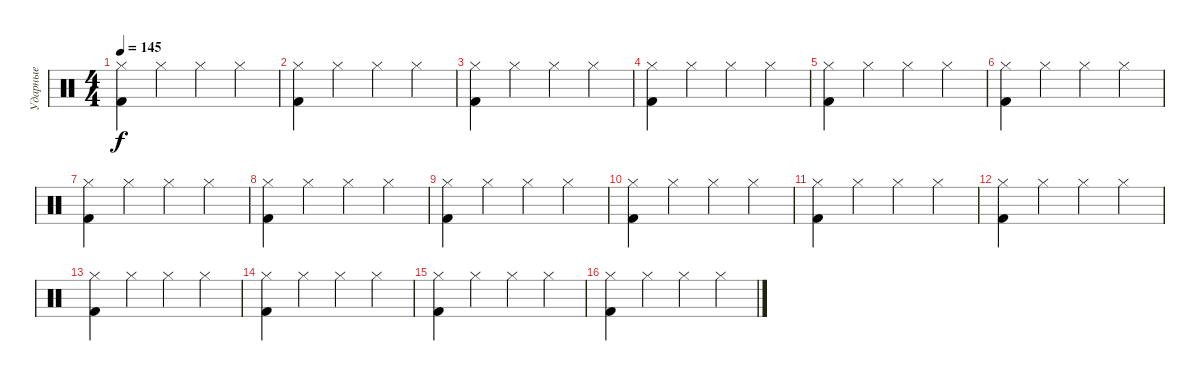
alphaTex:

\track ("Ударные" "Ударные") {instrument percussion}
\staff {score}
\articulation defaults
\ts (4 4)
\tempo 145
\clef neutral
\ks c
("Hi-Hat (closed)" "Kick (hit) 2").4{dy f} "Hi-Hat (closed)".4 "Hi-Hat (closed)".4 "Hi-Hat (closed)".4 |
("Kick (hit) 2" "Hi-Hat (closed)").4 "Hi-Hat (closed)".4 "Hi-Hat (closed)".4 "Hi-Hat (closed)".4 |
("Kick (hit) 2" "Hi-Hat (closed)").4 "Hi-Hat (closed)".4 "Hi-Hat (closed)".4 "Hi-Hat (closed)".4 |
("Kick (hit) 2" "Hi-Hat (closed)").4 "Hi-Hat (closed)".4 "Hi-Hat (closed)".4 "Hi-Hat (closed)".4 |
("Kick (hit) 2" "Hi-Hat (closed)").4 "Hi-Hat (closed)".4 "Hi-Hat (closed)".4 "Hi-Hat (closed)".4 |
("Kick (hit) 2" "Hi-Hat (closed)").4 "Hi-Hat (closed)".4 "Hi-Hat (closed)".4 "Hi-Hat (closed)".4 |
("Kick (hit) 2" "Hi-Hat (closed)").4 "Hi-Hat (closed)".4 "Hi-Hat (closed)".4 "Hi-Hat (closed)".4 |
("Hi-Hat (closed)" "Kick (hit) 2").4 "Hi-Hat (closed)".4 "Hi-Hat (closed)".4 "Hi-Hat (closed)".4 |
("Kick (hit) 2" "Hi-Hat (closed)").4 "Hi-Hat (closed)".4 "Hi-Hat (closed)".4 "Hi-Hat (closed)".4 |
("Kick (hit) 2" "Hi-Hat (closed)").4 "Hi-Hat (closed)".4 "Hi-Hat (closed)".4 "Hi-Hat (closed)".4 |
("Hi-Hat (closed)" "Kick (hit) 2").4 "Hi-Hat (closed)".4 "Hi-Hat (closed)".4 "Hi-Hat (closed)".4 |
("Kick (hit) 2" "Hi-Hat (closed)").4 "Hi-Hat (closed)".4 "Hi-Hat (closed)".4 "Hi-Hat (closed)".4 |
("Kick (hit) 2" "Hi-Hat (closed)").4 "Hi-Hat (closed)".4 "Hi-Hat (closed)".4 "Hi-Hat (closed)".4 |
("Kick (hit) 2" "Hi-Hat (closed)").4 "Hi-Hat (closed)".4 "Hi-Hat (closed)".4 "Hi-Hat (closed)".4 |
("Kick (hit) 2" "Hi-Hat (closed)").4 "Hi-Hat (closed)".4 "Hi-Hat (closed)".4 "Hi-Hat (closed)".4 |
("Kick (hit) 2" "Hi-Hat (closed)").4 "Hi-Hat (closed)".4 "Hi-Hat (closed)".4 "Hi-Hat (closed)".4
